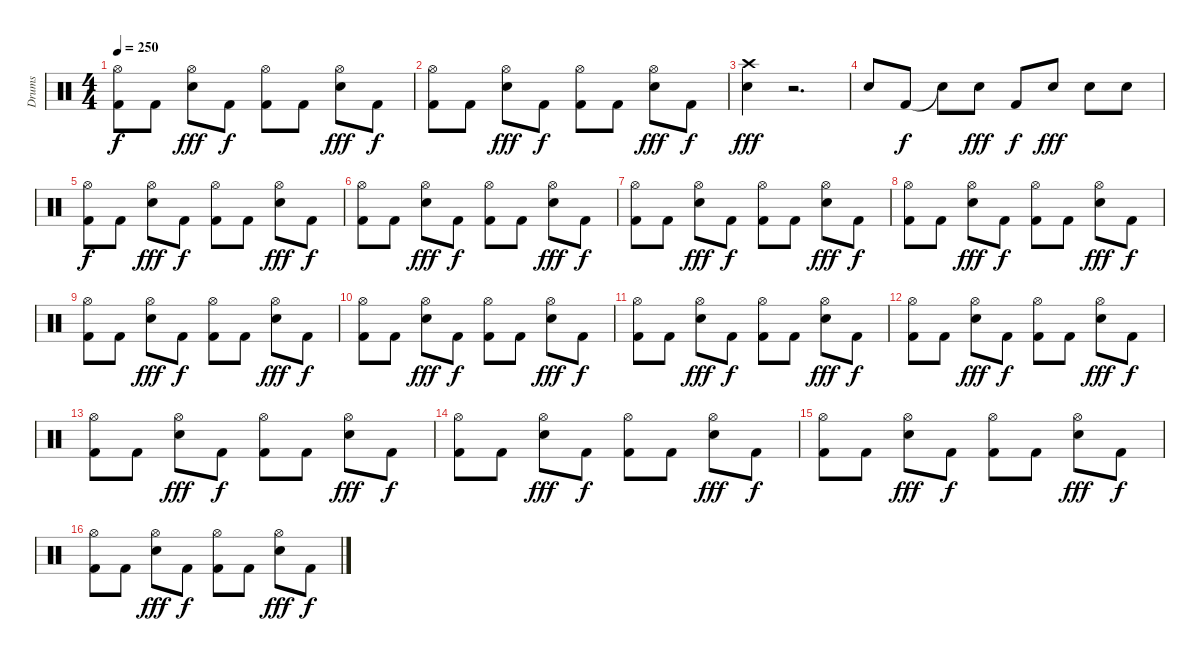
\track ("Drums" "Drums") {instrument percussion}
\staff {score}
\articulation defaults
\ts (4 4)
\tempo 250
\clef neutral
\ks c
("Kick (hit) 2" "Hi-Hat (open)").8{dy f} "Kick (hit) 2".8 ("Hi-Hat (open)" "Snare (hit) 2").8{dy fff} "Kick (hit) 2".8{dy f} ("Hi-Hat (open)" "Kick (hit) 2").8 "Kick (hit) 2".8 ("Hi-Hat (open)" "Snare (hit) 2").8{dy fff} "Kick (hit) 2".8{dy f} |
("Hi-Hat (open)" "Kick (hit) 2").8 "Kick (hit) 2".8 ("Hi-Hat (open)" "Snare (hit) 2").8{dy fff} "Kick (hit) 2".8{dy f} ("Hi-Hat (open)" "Kick (hit) 2").8 "Kick (hit) 2".8 ("Hi-Hat (open)" "Snare (hit) 2").8{dy fff} "Kick (hit) 2".8{dy f} |
("Crash high (hit)" "Snare (hit) 2").4{dy fff} r.2{d} |
"Snare (hit) 2".8 "Kick (hit) 2".8{dy f} "Snare (hit)"{t}.8 "Snare (hit) 2".8{dy fff} "Kick (hit) 2".8{dy f} "Snare (hit) 2".8{dy fff} "Snare (hit) 2".8 "Snare (hit) 2".8 |
("Hi-Hat (open)" "Kick (hit) 2").8{dy f volume 14 balance 9} "Kick (hit) 2".8 ("Hi-Hat (open)" "Snare (hit) 2").8{dy fff} "Kick (hit) 2".8{dy f} ("Hi-Hat (open)" "Kick (hit) 2").8 "Kick (hit) 2".8 ("Hi-Hat (open)" "Snare (hit) 2").8{dy fff} "Kick (hit) 2".8{dy f} |
("Kick (hit) 2" "Hi-Hat (open)").8 "Kick (hit) 2".8 ("Hi-Hat (open)" "Snare (hit) 2").8{dy fff} "Kick (hit) 2".8{dy f} ("Hi-Hat (open)" "Kick (hit) 2").8 "Kick (hit) 2".8 ("Hi-Hat (open)" "Snare (hit) 2").8{dy fff} "Kick (hit) 2".8{dy f} |
("Kick (hit) 2" "Hi-Hat (open)").8 "Kick (hit) 2".8 ("Hi-Hat (open)" "Snare (hit) 2").8{dy fff} "Kick (hit) 2".8{dy f} ("Hi-Hat (open)" "Kick (hit) 2").8 "Kick (hit) 2".8 ("Hi-Hat (open)" "Snare (hit) 2").8{dy fff} "Kick (hit) 2".8{dy f} |
("Kick (hit) 2" "Hi-Hat (open)").8 "Kick (hit) 2".8 ("Hi-Hat (open)" "Snare (hit) 2").8{dy fff} "Kick (hit) 2".8{dy f} ("Hi-Hat (open)" "Kick (hit) 2").8 "Kick (hit) 2".8 ("Hi-Hat (open)" "Snare (hit) 2").8{dy fff} "Kick (hit) 2".8{dy f} |
("Kick (hit) 2" "Hi-Hat (open)").8 "Kick (hit) 2".8 ("Hi-Hat (open)" "Snare (hit) 2").8{dy fff} "Kick (hit) 2".8{dy f} ("Hi-Hat (open)" "Kick (hit) 2").8 "Kick (hit) 2".8 ("Hi-Hat (open)" "Snare (hit) 2").8{dy fff} "Kick (hit) 2".8{dy f} |
("Kick (hit) 2" "Hi-Hat (open)").8 "Kick (hit) 2".8 ("Hi-Hat (open)" "Snare (hit) 2").8{dy fff} "Kick (hit) 2".8{dy f} ("Hi-Hat (open)" "Kick (hit) 2").8 "Kick (hit) 2".8 ("Hi-Hat (open)" "Snare (hit) 2").8{dy fff} "Kick (hit) 2".8{dy f} |
("Kick (hit) 2" "Hi-Hat (open)").8 "Kick (hit) 2".8 ("Hi-Hat (open)" "Snare (hit) 2").8{dy fff} "Kick (hit) 2".8{dy f} ("Hi-Hat (open)" "Kick (hit) 2").8 "Kick (hit) 2".8 ("Hi-Hat (open)" "Snare (hit) 2").8{dy fff} "Kick (hit) 2".8{dy f} |
("Kick (hit) 2" "Hi-Hat (open)").8 "Kick (hit) 2".8 ("Hi-Hat (open)" "Snare (hit) 2").8{dy fff} "Kick (hit) 2".8{dy f} ("Hi-Hat (open)" "Kick (hit) 2").8 "Kick (hit) 2".8 ("Hi-Hat (open)" "Snare (hit) 2").8{dy fff} "Kick (hit) 2".8{dy f} |
("Kick (hit) 2" "Hi-Hat (open)").8 "Kick (hit) 2".8 ("Hi-Hat (open)" "Snare (hit) 2").8{dy fff} "Kick (hit) 2".8{dy f} ("Hi-Hat (open)" "Kick (hit) 2").8 "Kick (hit) 2".8 ("Hi-Hat (open)" "Snare (hit) 2").8{dy fff} "Kick (hit) 2".8{dy f} |
("Kick (hit) 2" "Hi-Hat (open)").8 "Kick (hit) 2".8 ("Hi-Hat (open)" "Snare (hit) 2").8{dy fff} "Kick (hit) 2".8{dy f} ("Hi-Hat (open)" "Kick (hit) 2").8 "Kick (hit) 2".8 ("Hi-Hat (open)" "Snare (hit) 2").8{dy fff} "Kick (hit) 2".8{dy f} |
("Kick (hit) 2" "Hi-Hat (open)").8 "Kick (hit) 2".8 ("Hi-Hat (open)" "Snare (hit) 2").8{dy fff} "Kick (hit) 2".8{dy f} ("Hi-Hat (open)" "Kick (hit) 2").8 "Kick (hit) 2".8 ("Hi-Hat (open)" "Snare (hit) 2").8{dy fff} "Kick (hit) 2".8{dy f} |
("Kick (hit) 2" "Hi-Hat (open)").8 "Kick (hit) 2".8 ("Hi-Hat (open)" "Snare (hit) 2").8{dy fff} "Kick (hit) 2".8{dy f} ("Hi-Hat (open)" "Kick (hit) 2").8 "Kick (hit) 2".8 ("Hi-Hat (open)" "Snare (hit) 2").8{dy fff} "Kick (hit) 2".8{dy f}
